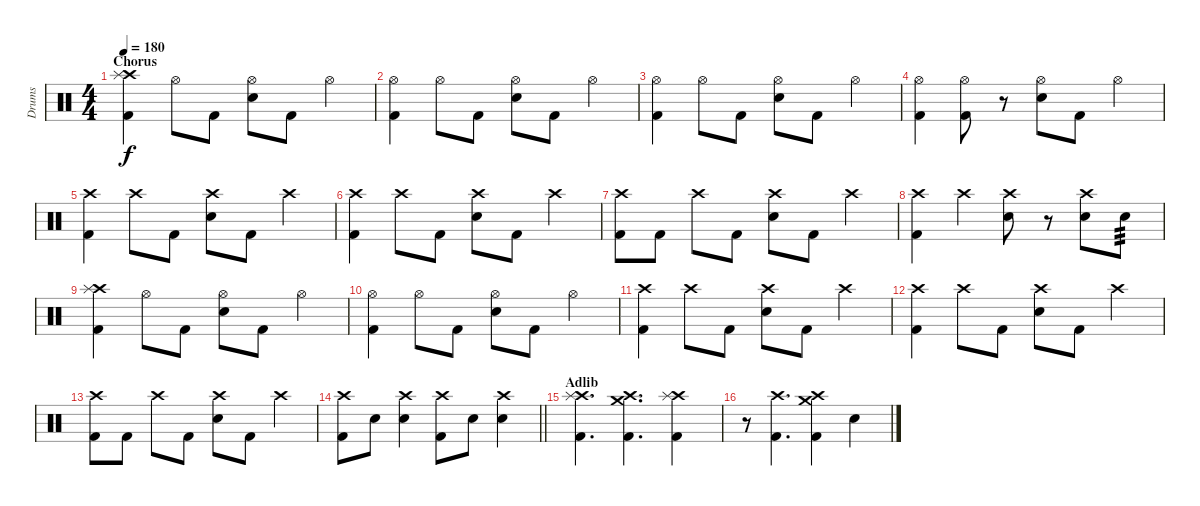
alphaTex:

\track ("Drums" "Drums") {instrument percussion}
\staff {score}
\articulation defaults
\ts (4 4)
\section ("" "Chorus")
\tempo 180
\clef neutral
\ks c
("Crash high (hit)" "Splash (hit)" "Kick (hit) 2").4{dy f} "Hi-Hat (open)".8 "Kick (hit) 2".8 ("Electric Snare (hit)" "Hi-Hat (open)").8 "Kick (hit) 2".8 "Hi-Hat (open)".4 |
("Hi-Hat (open)" "Kick (hit) 2").4 "Hi-Hat (open)".8 "Kick (hit) 2".8 ("Electric Snare (hit)" "Hi-Hat (open)").8 "Kick (hit) 2".8 "Hi-Hat (open)".4 |
("Hi-Hat (open)" "Kick (hit) 2").4 "Hi-Hat (open)".8 "Kick (hit) 2".8 ("Electric Snare (hit)" "Hi-Hat (open)").8 "Kick (hit) 2".8 "Hi-Hat (open)".4 |
("Hi-Hat (open)" "Kick (hit) 2").4 ("Hi-Hat (open)" "Kick (hit) 2").8 r.8 ("Electric Snare (hit)" "Hi-Hat (open)").8 "Kick (hit) 2".8 "Hi-Hat (open)".4 |
("Crash high (hit)" "Kick (hit) 2").4 "Crash high (hit)".8 "Kick (hit) 2".8 ("Electric Snare (hit)" "Crash high (hit)").8 "Kick (hit) 2".8 "Crash high (hit)".4 |
("Crash high (hit)" "Kick (hit) 2").4 "Crash high (hit)".8 "Kick (hit) 2".8 ("Electric Snare (hit)" "Crash high (hit)").8 "Kick (hit) 2".8 "Crash high (hit)".4 |
("Crash high (hit)" "Kick (hit) 2").8 "Kick (hit) 2".8 "Crash high (hit)".8 "Kick (hit) 2".8 ("Electric Snare (hit)" "Crash high (hit)").8 "Kick (hit) 2".8 "Crash high (hit)".4 |
("Crash high (hit)" "Kick (hit) 2").4 "Crash high (hit)".4 ("Electric Snare (hit)" "Crash high (hit)").8 r.8 ("Electric Snare (hit)" "Crash high (hit)").8 "Electric Snare (hit)".8{tp 3} |
("Crash high (hit)" "Splash (hit)" "Kick (hit) 2").4 "Hi-Hat (open)".8 "Kick (hit) 2".8 ("Electric Snare (hit)" "Hi-Hat (open)").8 "Kick (hit) 2".8 "Hi-Hat (open)".4 |
("Hi-Hat (open)" "Kick (hit) 2").4 "Hi-Hat (open)".8 "Kick (hit) 2".8 ("Electric Snare (hit)" "Hi-Hat (open)").8 "Kick (hit) 2".8 "Hi-Hat (open)".4 |
("Crash high (hit)" "Kick (hit) 2").4 "Crash high (hit)".8 "Kick (hit) 2".8 ("Electric Snare (hit)" "Crash high (hit)").8 "Kick (hit) 2".8 "Crash high (hit)".4 |
("Crash high (hit)" "Kick (hit) 2").4 "Crash high (hit)".8 "Kick (hit) 2".8 ("Electric Snare (hit)" "Crash high (hit)").8 "Kick (hit) 2".8 "Crash high (hit)".4 |
("Crash high (hit)" "Kick (hit) 2").8 "Kick (hit) 2".8 "Crash high (hit)".8 "Kick (hit) 2".8 ("Electric Snare (hit)" "Crash high (hit)").8 "Kick (hit) 2".8 "Crash high (hit)".4 |
\barLineRight lightlight
("Crash high (hit)" "Kick (hit) 2").8 "Electric Snare (hit)".8 ("Electric Snare (hit)" "Crash high (hit)").4 ("Crash high (hit)" "Kick (hit) 2").8 "Electric Snare (hit)".8 ("Electric Snare (hit)" "Crash high (hit)").4 |
\section ("" "Adlib")
("Crash high (hit)" "Splash (hit)" "Kick (hit) 2").4{d} ("Crash high (hit)" "Crash medium (hit)" "Kick (hit) 2").4{d} ("Crash high (hit)" "Splash (hit)" "Kick (hit) 2").4 |
r.8 ("Crash high (hit)" "Kick (hit) 2").4{d} ("Crash high (hit)" "Crash medium (hit)" "Kick (hit) 2").4 "Electric Snare (hit)".4
